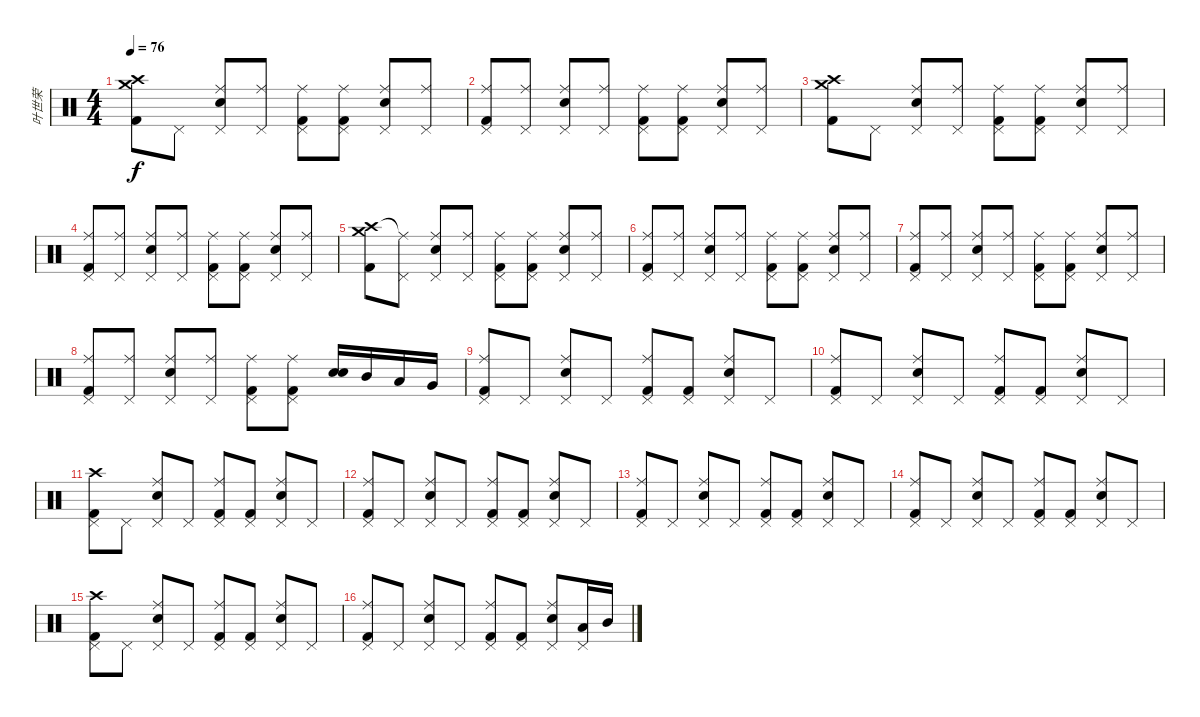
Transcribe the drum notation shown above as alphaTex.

\track ("叶世荣" "叶世荣") {instrument percussion}
\staff {score}
\articulation defaults
\ts (4 4)
\tempo 76
\clef neutral
\ks c
("Crash medium (hit)" "Crash high (hit)" "Kick (hit) 2").8{dy f} "Pedal Hi-Hat (hit)".8 ("Ride (middle)" "Pedal Hi-Hat (hit)" "Electric Snare (hit)").8 ("Ride (middle)" "Pedal Hi-Hat (hit)").8 ("Ride (middle)" "Pedal Hi-Hat (hit)" "Kick (hit) 2").8 ("Ride (middle)" "Pedal Hi-Hat (hit)" "Kick (hit) 2").8 ("Ride (middle)" "Pedal Hi-Hat (hit)" "Electric Snare (hit)").8 ("Ride (middle)" "Pedal Hi-Hat (hit)").8 |
("Ride (middle)" "Pedal Hi-Hat (hit)" "Kick (hit) 2").8 ("Ride (middle)" "Pedal Hi-Hat (hit)").8 ("Ride (middle)" "Pedal Hi-Hat (hit)" "Electric Snare (hit)").8 ("Ride (middle)" "Pedal Hi-Hat (hit)").8 ("Ride (middle)" "Pedal Hi-Hat (hit)" "Kick (hit) 2").8 ("Ride (middle)" "Pedal Hi-Hat (hit)" "Kick (hit) 2").8 ("Ride (middle)" "Pedal Hi-Hat (hit)" "Electric Snare (hit)").8 ("Ride (middle)" "Pedal Hi-Hat (hit)").8 |
("Crash high (hit)" "Crash medium (hit)" "Kick (hit) 2").8 "Pedal Hi-Hat (hit)".8 ("Ride (middle)" "Pedal Hi-Hat (hit)" "Electric Snare (hit)").8 ("Ride (middle)" "Pedal Hi-Hat (hit)").8 ("Ride (middle)" "Pedal Hi-Hat (hit)" "Kick (hit) 2").8 ("Ride (middle)" "Pedal Hi-Hat (hit)" "Kick (hit) 2").8 ("Ride (middle)" "Pedal Hi-Hat (hit)" "Electric Snare (hit)").8 ("Ride (middle)" "Pedal Hi-Hat (hit)").8 |
("Ride (middle)" "Pedal Hi-Hat (hit)" "Kick (hit) 2").8 ("Ride (middle)" "Pedal Hi-Hat (hit)").8 ("Ride (middle)" "Pedal Hi-Hat (hit)" "Electric Snare (hit)").8 ("Ride (middle)" "Pedal Hi-Hat (hit)").8 ("Ride (middle)" "Pedal Hi-Hat (hit)" "Kick (hit) 2").8 ("Ride (middle)" "Pedal Hi-Hat (hit)" "Kick (hit) 2").8 ("Ride (middle)" "Pedal Hi-Hat (hit)" "Electric Snare (hit)").8 ("Ride (middle)" "Pedal Hi-Hat (hit)").8 |
("Crash high (hit)" "Crash medium (hit)" "Kick (hit) 2").8 ("Ride (middle)"{t} "Pedal Hi-Hat (hit)").8 ("Ride (middle)" "Pedal Hi-Hat (hit)" "Electric Snare (hit)").8 ("Ride (middle)" "Pedal Hi-Hat (hit)").8 ("Ride (middle)" "Pedal Hi-Hat (hit)" "Kick (hit) 2").8 ("Ride (middle)" "Pedal Hi-Hat (hit)" "Kick (hit) 2").8 ("Ride (middle)" "Pedal Hi-Hat (hit)" "Electric Snare (hit)").8 ("Ride (middle)" "Pedal Hi-Hat (hit)").8 |
("Ride (middle)" "Pedal Hi-Hat (hit)" "Kick (hit) 2").8 ("Ride (middle)" "Pedal Hi-Hat (hit)").8 ("Ride (middle)" "Pedal Hi-Hat (hit)" "Electric Snare (hit)").8 ("Ride (middle)" "Pedal Hi-Hat (hit)").8 ("Ride (middle)" "Pedal Hi-Hat (hit)" "Kick (hit) 2").8 ("Ride (middle)" "Pedal Hi-Hat (hit)" "Kick (hit) 2").8 ("Ride (middle)" "Pedal Hi-Hat (hit)" "Electric Snare (hit)").8 ("Ride (middle)" "Pedal Hi-Hat (hit)").8 |
("Ride (middle)" "Pedal Hi-Hat (hit)" "Kick (hit) 2").8 ("Ride (middle)" "Pedal Hi-Hat (hit)").8 ("Ride (middle)" "Pedal Hi-Hat (hit)" "Electric Snare (hit)").8 ("Ride (middle)" "Pedal Hi-Hat (hit)").8 ("Ride (middle)" "Pedal Hi-Hat (hit)" "Kick (hit) 2").8 ("Ride (middle)" "Pedal Hi-Hat (hit)" "Kick (hit) 2").8 ("Ride (middle)" "Pedal Hi-Hat (hit)" "Electric Snare (hit)").8 ("Ride (middle)" "Pedal Hi-Hat (hit)").8 |
("Ride (middle)" "Pedal Hi-Hat (hit)" "Kick (hit) 2").8 ("Ride (middle)" "Pedal Hi-Hat (hit)").8 ("Ride (middle)" "Pedal Hi-Hat (hit)" "Electric Snare (hit)").8 ("Ride (middle)" "Pedal Hi-Hat (hit)").8 ("Ride (middle)" "Pedal Hi-Hat (hit)" "Kick (hit) 2").8 ("Ride (middle)" "Pedal Hi-Hat (hit)" "Kick (hit) 2").8 ("Electric Snare (hit)" "Electric Snare (hit)").16 "Mid Tom (hit)".16 "Low Tom (hit)".16 "Very Low Tom (hit)".16 |
("Ride (middle)" "Pedal Hi-Hat (hit)" "Kick (hit) 2").8 "Pedal Hi-Hat (hit)".8 ("Ride (middle)" "Pedal Hi-Hat (hit)" "Electric Snare (hit)").8 "Pedal Hi-Hat (hit)".8 ("Ride (middle)" "Pedal Hi-Hat (hit)" "Kick (hit) 2").8 ("Pedal Hi-Hat (hit)" "Kick (hit) 2").8 ("Ride (middle)" "Pedal Hi-Hat (hit)" "Electric Snare (hit)").8 "Pedal Hi-Hat (hit)".8 |
("Ride (middle)" "Pedal Hi-Hat (hit)" "Kick (hit) 2").8 "Pedal Hi-Hat (hit)".8 ("Ride (middle)" "Pedal Hi-Hat (hit)" "Electric Snare (hit)").8 "Pedal Hi-Hat (hit)".8 ("Ride (middle)" "Pedal Hi-Hat (hit)" "Kick (hit) 2").8 ("Pedal Hi-Hat (hit)" "Kick (hit) 2").8 ("Ride (middle)" "Pedal Hi-Hat (hit)" "Electric Snare (hit)").8 "Pedal Hi-Hat (hit)".8 |
("Crash high (hit)" "Pedal Hi-Hat (hit)" "Kick (hit) 2").8 "Pedal Hi-Hat (hit)".8 ("Ride (middle)" "Pedal Hi-Hat (hit)" "Electric Snare (hit)").8 "Pedal Hi-Hat (hit)".8 ("Ride (middle)" "Pedal Hi-Hat (hit)" "Kick (hit) 2").8 ("Pedal Hi-Hat (hit)" "Kick (hit) 2").8 ("Ride (middle)" "Pedal Hi-Hat (hit)" "Electric Snare (hit)").8 "Pedal Hi-Hat (hit)".8 |
("Ride (middle)" "Pedal Hi-Hat (hit)" "Kick (hit) 2").8 "Pedal Hi-Hat (hit)".8 ("Ride (middle)" "Pedal Hi-Hat (hit)" "Electric Snare (hit)").8 "Pedal Hi-Hat (hit)".8 ("Ride (middle)" "Pedal Hi-Hat (hit)" "Kick (hit) 2").8 ("Pedal Hi-Hat (hit)" "Kick (hit) 2").8 ("Ride (middle)" "Pedal Hi-Hat (hit)" "Electric Snare (hit)").8 "Pedal Hi-Hat (hit)".8 |
("Ride (middle)" "Pedal Hi-Hat (hit)" "Kick (hit) 2").8 "Pedal Hi-Hat (hit)".8 ("Ride (middle)" "Pedal Hi-Hat (hit)" "Electric Snare (hit)").8 "Pedal Hi-Hat (hit)".8 ("Ride (middle)" "Pedal Hi-Hat (hit)" "Kick (hit) 2").8 ("Pedal Hi-Hat (hit)" "Kick (hit) 2").8 ("Ride (middle)" "Pedal Hi-Hat (hit)" "Electric Snare (hit)").8 "Pedal Hi-Hat (hit)".8 |
("Ride (middle)" "Pedal Hi-Hat (hit)" "Kick (hit) 2").8 "Pedal Hi-Hat (hit)".8 ("Ride (middle)" "Pedal Hi-Hat (hit)" "Electric Snare (hit)").8 "Pedal Hi-Hat (hit)".8 ("Ride (middle)" "Pedal Hi-Hat (hit)" "Kick (hit) 2").8 ("Pedal Hi-Hat (hit)" "Kick (hit) 2").8 ("Ride (middle)" "Pedal Hi-Hat (hit)" "Electric Snare (hit)").8 "Pedal Hi-Hat (hit)".8 |
("Crash high (hit)" "Pedal Hi-Hat (hit)" "Kick (hit) 2").8 "Pedal Hi-Hat (hit)".8 ("Ride (middle)" "Pedal Hi-Hat (hit)" "Electric Snare (hit)").8 "Pedal Hi-Hat (hit)".8 ("Ride (middle)" "Pedal Hi-Hat (hit)" "Kick (hit) 2").8 ("Pedal Hi-Hat (hit)" "Kick (hit) 2").8 ("Ride (middle)" "Pedal Hi-Hat (hit)" "Electric Snare (hit)").8 "Pedal Hi-Hat (hit)".8 |
("Ride (middle)" "Pedal Hi-Hat (hit)" "Kick (hit) 2").8 "Pedal Hi-Hat (hit)".8 ("Ride (middle)" "Pedal Hi-Hat (hit)" "Electric Snare (hit)").8 "Pedal Hi-Hat (hit)".8 ("Ride (middle)" "Pedal Hi-Hat (hit)" "Kick (hit) 2").8 ("Pedal Hi-Hat (hit)" "Kick (hit) 2").8 ("Ride (middle)" "Pedal Hi-Hat (hit)" "Electric Snare (hit)").8 ("Pedal Hi-Hat (hit)" "Low Tom (hit)").16 "Mid Tom (hit)".16
